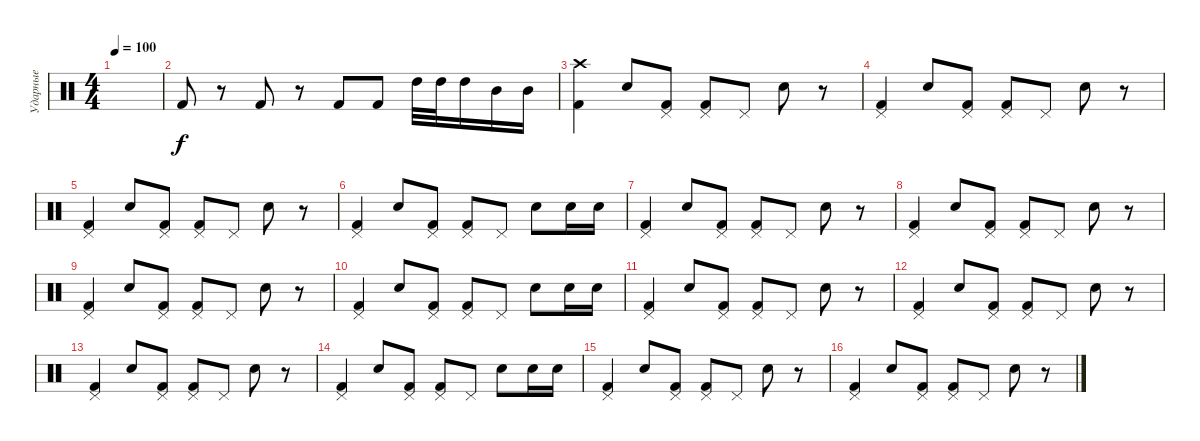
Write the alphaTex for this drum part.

\track ("Ударные" "Ударные") {instrument percussion}
\staff {score}
\articulation defaults
\ts (4 4)
\tempo 100
\clef neutral
\ks c
|
"Kick (hit) 2".8 r.8 "Kick (hit) 2".8 r.8 "Kick (hit) 2".8 "Kick (hit) 2".8 "High Tom (hit)".32 "High Tom (hit)".32 "High Tom (hit)".16 "Mid Tom (hit)".16 "Mid Tom (hit)".16 |
("Crash high (hit)" "Kick (hit) 2").4 "Snare (hit) 2".8 ("Pedal Hi-Hat (hit)" "Kick (hit) 2").8 ("Pedal Hi-Hat (hit)" "Kick (hit) 2").8 "Pedal Hi-Hat (hit)".8 "Snare (hit) 2".8 r.8 |
("Pedal Hi-Hat (hit)" "Kick (hit) 2").4 "Snare (hit) 2".8 ("Pedal Hi-Hat (hit)" "Kick (hit) 2").8 ("Pedal Hi-Hat (hit)" "Kick (hit) 2").8 "Pedal Hi-Hat (hit)".8 "Snare (hit) 2".8 r.8 |
("Pedal Hi-Hat (hit)" "Kick (hit) 2").4 "Snare (hit) 2".8 ("Pedal Hi-Hat (hit)" "Kick (hit) 2").8 ("Pedal Hi-Hat (hit)" "Kick (hit) 2").8 "Pedal Hi-Hat (hit)".8 "Snare (hit) 2".8 r.8 |
("Pedal Hi-Hat (hit)" "Kick (hit) 2").4 "Snare (hit) 2".8 ("Pedal Hi-Hat (hit)" "Kick (hit) 2").8 ("Pedal Hi-Hat (hit)" "Kick (hit) 2").8 "Pedal Hi-Hat (hit)".8 "Snare (hit) 2".8 "Snare (hit) 2".16 "Snare (hit) 2".16 |
("Pedal Hi-Hat (hit)" "Kick (hit) 2").4 "Snare (hit) 2".8 ("Pedal Hi-Hat (hit)" "Kick (hit) 2").8 ("Pedal Hi-Hat (hit)" "Kick (hit) 2").8 "Pedal Hi-Hat (hit)".8 "Snare (hit) 2".8 r.8 |
("Pedal Hi-Hat (hit)" "Kick (hit) 2").4 "Snare (hit) 2".8 ("Pedal Hi-Hat (hit)" "Kick (hit) 2").8 ("Pedal Hi-Hat (hit)" "Kick (hit) 2").8 "Pedal Hi-Hat (hit)".8 "Snare (hit) 2".8 r.8 |
("Pedal Hi-Hat (hit)" "Kick (hit) 2").4 "Snare (hit) 2".8 ("Pedal Hi-Hat (hit)" "Kick (hit) 2").8 ("Pedal Hi-Hat (hit)" "Kick (hit) 2").8 "Pedal Hi-Hat (hit)".8 "Snare (hit) 2".8 r.8 |
("Pedal Hi-Hat (hit)" "Kick (hit) 2").4 "Snare (hit) 2".8 ("Pedal Hi-Hat (hit)" "Kick (hit) 2").8 ("Pedal Hi-Hat (hit)" "Kick (hit) 2").8 "Pedal Hi-Hat (hit)".8 "Snare (hit) 2".8 "Snare (hit) 2".16 "Snare (hit) 2".16 |
("Pedal Hi-Hat (hit)" "Kick (hit) 2").4 "Snare (hit) 2".8 ("Pedal Hi-Hat (hit)" "Kick (hit) 2").8 ("Pedal Hi-Hat (hit)" "Kick (hit) 2").8 "Pedal Hi-Hat (hit)".8 "Snare (hit) 2".8 r.8 |
("Pedal Hi-Hat (hit)" "Kick (hit) 2").4 "Snare (hit) 2".8 ("Pedal Hi-Hat (hit)" "Kick (hit) 2").8 ("Pedal Hi-Hat (hit)" "Kick (hit) 2").8 "Pedal Hi-Hat (hit)".8 "Snare (hit) 2".8 r.8 |
("Pedal Hi-Hat (hit)" "Kick (hit) 2").4 "Snare (hit) 2".8 ("Pedal Hi-Hat (hit)" "Kick (hit) 2").8 ("Pedal Hi-Hat (hit)" "Kick (hit) 2").8 "Pedal Hi-Hat (hit)".8 "Snare (hit) 2".8 r.8 |
("Pedal Hi-Hat (hit)" "Kick (hit) 2").4 "Snare (hit) 2".8 ("Pedal Hi-Hat (hit)" "Kick (hit) 2").8 ("Pedal Hi-Hat (hit)" "Kick (hit) 2").8 "Pedal Hi-Hat (hit)".8 "Snare (hit) 2".8 "Snare (hit) 2".16 "Snare (hit) 2".16 |
("Pedal Hi-Hat (hit)" "Kick (hit) 2").4 "Snare (hit) 2".8 ("Pedal Hi-Hat (hit)" "Kick (hit) 2").8 ("Pedal Hi-Hat (hit)" "Kick (hit) 2").8 "Pedal Hi-Hat (hit)".8 "Snare (hit) 2".8 r.8 |
("Pedal Hi-Hat (hit)" "Kick (hit) 2").4 "Snare (hit) 2".8 ("Pedal Hi-Hat (hit)" "Kick (hit) 2").8 ("Pedal Hi-Hat (hit)" "Kick (hit) 2").8 "Pedal Hi-Hat (hit)".8 "Snare (hit) 2".8 r.8
